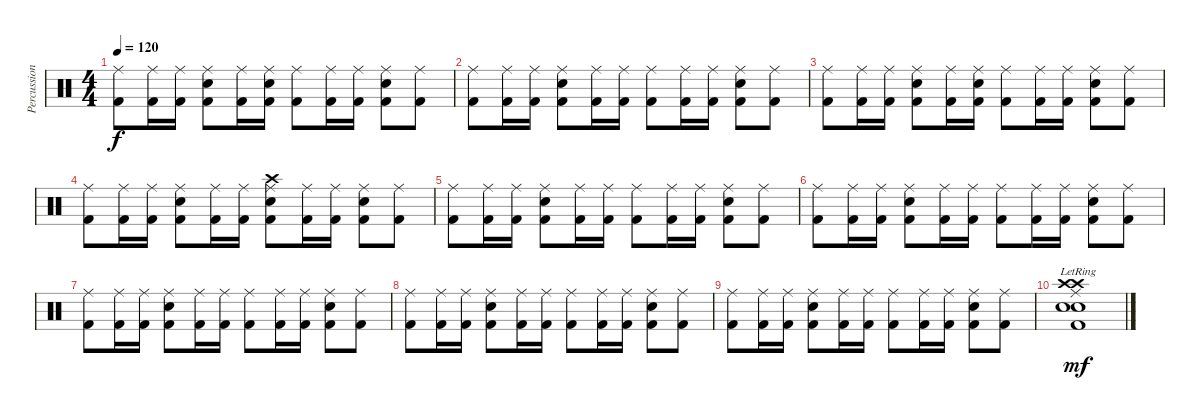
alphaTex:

\track ("Percussioni" "Percussion") {instrument percussion}
\staff {score}
\articulation defaults
\ts (4 4)
\tempo 120
\clef neutral
\ks c
("Ride (middle)" "Kick (hit) 2").8{dy f} ("Ride (middle)" "Kick (hit) 2").16 ("Ride (middle)" "Kick (hit) 2").16 ("Ride (middle)" "Kick (hit) 2" "Electric Snare (hit)").8 ("Ride (middle)" "Kick (hit) 2").16 ("Ride (middle)" "Kick (hit) 2" "Electric Snare (hit)").16 ("Ride (middle)" "Kick (hit) 2").8 ("Ride (middle)" "Kick (hit) 2").16 ("Ride (middle)" "Kick (hit) 2").16 ("Ride (middle)" "Kick (hit) 2" "Electric Snare (hit)").8 ("Ride (middle)" "Kick (hit) 2").8 |
("Ride (middle)" "Kick (hit) 2").8 ("Ride (middle)" "Kick (hit) 2").16 ("Ride (middle)" "Kick (hit) 2").16 ("Ride (middle)" "Kick (hit) 2" "Electric Snare (hit)").8 ("Ride (middle)" "Kick (hit) 2").16 ("Ride (middle)" "Kick (hit) 2").16 ("Ride (middle)" "Kick (hit) 2").8 ("Ride (middle)" "Kick (hit) 2").16 ("Ride (middle)" "Kick (hit) 2").16 ("Ride (middle)" "Kick (hit) 2" "Electric Snare (hit)").8 ("Ride (middle)" "Kick (hit) 2").8 |
("Ride (middle)" "Kick (hit) 2").8 ("Ride (middle)" "Kick (hit) 2").16 ("Ride (middle)" "Kick (hit) 2").16 ("Ride (middle)" "Kick (hit) 2" "Electric Snare (hit)").8 ("Ride (middle)" "Kick (hit) 2").16 ("Ride (middle)" "Kick (hit) 2" "Electric Snare (hit)").16 ("Ride (middle)" "Kick (hit) 2").8 ("Ride (middle)" "Kick (hit) 2").16 ("Ride (middle)" "Kick (hit) 2").16 ("Ride (middle)" "Kick (hit) 2" "Electric Snare (hit)").8 ("Ride (middle)" "Kick (hit) 2").8 |
("Ride (middle)" "Kick (hit) 2").8 ("Ride (middle)" "Kick (hit) 2").16 ("Ride (middle)" "Kick (hit) 2").16 ("Ride (middle)" "Kick (hit) 2" "Electric Snare (hit)").8 ("Ride (middle)" "Kick (hit) 2").16 ("Ride (middle)" "Kick (hit) 2").16 ("Ride (middle)" "Kick (hit) 2" "Electric Snare (hit)" "Crash high (hit)").8 ("Ride (middle)" "Kick (hit) 2").16 ("Ride (middle)" "Kick (hit) 2").16 ("Ride (middle)" "Kick (hit) 2" "Electric Snare (hit)").8 ("Ride (middle)" "Kick (hit) 2").8 |
("Ride (middle)" "Kick (hit) 2").8 ("Ride (middle)" "Kick (hit) 2").16 ("Ride (middle)" "Kick (hit) 2").16 ("Ride (middle)" "Kick (hit) 2" "Electric Snare (hit)").8 ("Ride (middle)" "Kick (hit) 2").16 ("Ride (middle)" "Kick (hit) 2").16 ("Ride (middle)" "Kick (hit) 2").8 ("Ride (middle)" "Kick (hit) 2").16 ("Ride (middle)" "Kick (hit) 2").16 ("Ride (middle)" "Kick (hit) 2" "Electric Snare (hit)").8 ("Ride (middle)" "Kick (hit) 2").8 |
("Ride (middle)" "Kick (hit) 2").8 ("Ride (middle)" "Kick (hit) 2").16 ("Ride (middle)" "Kick (hit) 2").16 ("Ride (middle)" "Kick (hit) 2" "Electric Snare (hit)").8 ("Ride (middle)" "Kick (hit) 2").16 ("Ride (middle)" "Kick (hit) 2").16 ("Ride (middle)" "Kick (hit) 2").8 ("Ride (middle)" "Kick (hit) 2").16 ("Ride (middle)" "Kick (hit) 2").16 ("Ride (middle)" "Kick (hit) 2" "Electric Snare (hit)").8 ("Ride (middle)" "Kick (hit) 2").8 |
("Ride (middle)" "Kick (hit) 2").8 ("Ride (middle)" "Kick (hit) 2").16 ("Ride (middle)" "Kick (hit) 2").16 ("Ride (middle)" "Kick (hit) 2" "Electric Snare (hit)").8 ("Ride (middle)" "Kick (hit) 2").16 ("Ride (middle)" "Kick (hit) 2").16 ("Ride (middle)" "Kick (hit) 2").8 ("Ride (middle)" "Kick (hit) 2").16 ("Ride (middle)" "Kick (hit) 2").16 ("Ride (middle)" "Kick (hit) 2" "Electric Snare (hit)").8 ("Ride (middle)" "Kick (hit) 2").8 |
("Ride (middle)" "Kick (hit) 2").8 ("Ride (middle)" "Kick (hit) 2").16 ("Ride (middle)" "Kick (hit) 2").16 ("Ride (middle)" "Kick (hit) 2" "Electric Snare (hit)").8 ("Ride (middle)" "Kick (hit) 2").16 ("Ride (middle)" "Kick (hit) 2").16 ("Ride (middle)" "Kick (hit) 2").8 ("Ride (middle)" "Kick (hit) 2").16 ("Ride (middle)" "Kick (hit) 2").16 ("Ride (middle)" "Kick (hit) 2" "Electric Snare (hit)").8 ("Ride (middle)" "Kick (hit) 2").8 |
("Ride (middle)" "Kick (hit) 2").8 ("Ride (middle)" "Kick (hit) 2").16 ("Ride (middle)" "Kick (hit) 2").16 ("Ride (middle)" "Kick (hit) 2" "Electric Snare (hit)").8 ("Ride (middle)" "Kick (hit) 2").16 ("Ride (middle)" "Kick (hit) 2").16 ("Ride (middle)" "Kick (hit) 2").8 ("Ride (middle)" "Kick (hit) 2").16 ("Ride (middle)" "Kick (hit) 2").16 ("Ride (middle)" "Kick (hit) 2" "Electric Snare (hit)").8 ("Ride (middle)" "Kick (hit) 2").8 |
("Electric Snare (hit)" "Crash high (hit)"{lr} "Crash high (hit)"{lr} "Kick (hit) 2" "Ride (middle)" "Electric Snare (hit)").1{dy mf}
